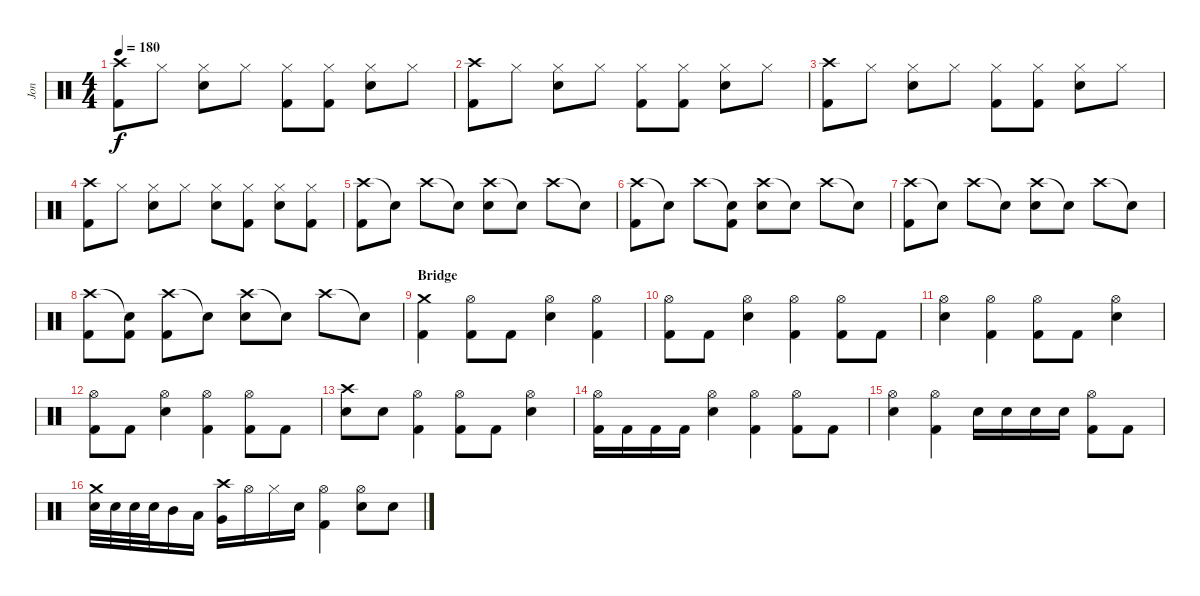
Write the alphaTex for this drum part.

\track ("Jon" "Jon") {instrument percussion}
\staff {score}
\articulation defaults
\ts (4 4)
\tempo 180
\clef neutral
\ks c
("Crash high (hit)" "Kick (hit) 2").8{dy f} "Hi-Hat (closed)".8 ("Hi-Hat (closed)" "Snare (hit) 2").8 "Hi-Hat (closed)".8 ("Hi-Hat (closed)" "Kick (hit) 2").8 ("Hi-Hat (closed)" "Kick (hit) 2").8 ("Hi-Hat (closed)" "Snare (hit) 2").8 "Hi-Hat (closed)".8 |
("Crash high (hit)" "Kick (hit) 2").8 "Hi-Hat (closed)".8 ("Hi-Hat (closed)" "Snare (hit) 2").8 "Hi-Hat (closed)".8 ("Hi-Hat (closed)" "Kick (hit) 2").8 ("Hi-Hat (closed)" "Kick (hit) 2").8 ("Hi-Hat (closed)" "Snare (hit) 2").8 "Hi-Hat (closed)".8 |
("Crash high (hit)" "Kick (hit) 2").8 "Hi-Hat (closed)".8 ("Hi-Hat (closed)" "Snare (hit) 2").8 "Hi-Hat (closed)".8 ("Hi-Hat (closed)" "Kick (hit) 2").8 ("Hi-Hat (closed)" "Kick (hit) 2").8 ("Hi-Hat (closed)" "Snare (hit) 2").8 "Hi-Hat (closed)".8 |
("Crash high (hit)" "Kick (hit) 2").8 "Hi-Hat (closed)".8 ("Hi-Hat (closed)" "Snare (hit) 2").8 "Hi-Hat (closed)".8 ("Hi-Hat (closed)" "Snare (hit) 2").8 ("Hi-Hat (closed)" "Kick (hit) 2").8 ("Hi-Hat (closed)" "Snare (hit) 2").8 ("Hi-Hat (closed)" "Kick (hit) 2").8 |
("Crash high (hit)" "Kick (hit) 2").8 "Snare (hit)"{t}.8 "Crash high (hit)".8 "Snare (hit)"{t}.8 ("Crash high (hit)" "Snare (hit) 2").8 "Snare (hit)"{t}.8 "Crash high (hit)".8 "Snare (hit)"{t}.8 |
("Crash high (hit)" "Kick (hit) 2").8 "Snare (hit)"{t}.8 "Crash high (hit)".8 ("Snare (hit)"{t} "Kick (hit) 2").8 ("Crash high (hit)" "Snare (hit) 2").8 "Snare (hit)"{t}.8 "Crash high (hit)".8 "Snare (hit)"{t}.8 |
("Crash high (hit)" "Kick (hit) 2").8 "Snare (hit)"{t}.8 "Crash high (hit)".8 "Snare (hit)"{t}.8 ("Crash high (hit)" "Snare (hit) 2").8 "Snare (hit)"{t}.8 "Crash high (hit)".8 "Snare (hit)"{t}.8 |
("Crash high (hit)" "Kick (hit) 2").8 ("Snare (hit)"{t} "Kick (hit) 2").8 ("Crash high (hit)" "Kick (hit) 2").8 "Snare (hit)"{t}.8 ("Crash high (hit)" "Snare (hit) 2").8 "Snare (hit)"{t}.8 "Crash high (hit)".8 "Snare (hit)"{t}.8 |
\section ("" "Bridge")
("Crash medium (hit)" "Kick (hit) 2").4 ("Hi-Hat (open)" "Kick (hit) 2").8 "Kick (hit) 2".8 ("Hi-Hat (open)" "Snare (hit) 2").4 ("Hi-Hat (open)" "Kick (hit) 2").4 |
("Hi-Hat (open)" "Kick (hit) 2").8 "Kick (hit) 2".8 ("Hi-Hat (open)" "Snare (hit) 2").4 ("Hi-Hat (open)" "Kick (hit) 2").4 ("Hi-Hat (open)" "Kick (hit) 2").8 "Kick (hit) 2".8 |
("Hi-Hat (open)" "Snare (hit) 2").4 ("Hi-Hat (open)" "Kick (hit) 2").4 ("Hi-Hat (open)" "Kick (hit) 2").8 "Kick (hit) 2".8 ("Hi-Hat (open)" "Snare (hit) 2").4 |
("Hi-Hat (open)" "Kick (hit) 2").8 "Kick (hit) 2".8 ("Hi-Hat (open)" "Snare (hit) 2").4 ("Hi-Hat (open)" "Kick (hit) 2").4 ("Hi-Hat (open)" "Kick (hit) 2").8 "Kick (hit) 2".8 |
("Crash high (hit)" "Snare (hit) 2").8 "Snare (hit) 2".8 ("Hi-Hat (open)" "Kick (hit) 2").4 ("Hi-Hat (open)" "Kick (hit) 2").8 "Kick (hit) 2".8 ("Hi-Hat (open)" "Snare (hit) 2").4 |
("Hi-Hat (open)" "Kick (hit) 2").16 "Kick (hit) 2".16 "Kick (hit) 2".16 "Kick (hit) 2".16 ("Hi-Hat (open)" "Snare (hit) 2").4 ("Hi-Hat (open)" "Kick (hit) 2").4 ("Hi-Hat (open)" "Kick (hit) 2").8 "Kick (hit) 2".8 |
("Hi-Hat (open)" "Snare (hit) 2").4 ("Hi-Hat (open)" "Kick (hit) 2").4 "Snare (hit) 2".16 "Snare (hit) 2".16 "Snare (hit) 2".16 "Snare (hit) 2".16 ("Hi-Hat (open)" "Kick (hit) 2").8 "Kick (hit) 2".8 |
("Crash medium (hit)" "Snare (hit) 2").32 "Snare (hit) 2".32 "Snare (hit) 2".32 "Snare (hit) 2".32 "Mid Tom (hit)".16 "Low Tom (hit)".16 ("Crash high (hit)" "Very Low Tom (hit)").16 "Hi-Hat (open)".16 "Hi-Hat (closed)".16 "Snare (hit) 2".16 ("Hi-Hat (open)" "Kick (hit) 2").4 ("Hi-Hat (open)" "Snare (hit) 2").8 "Snare (hit) 2".8
